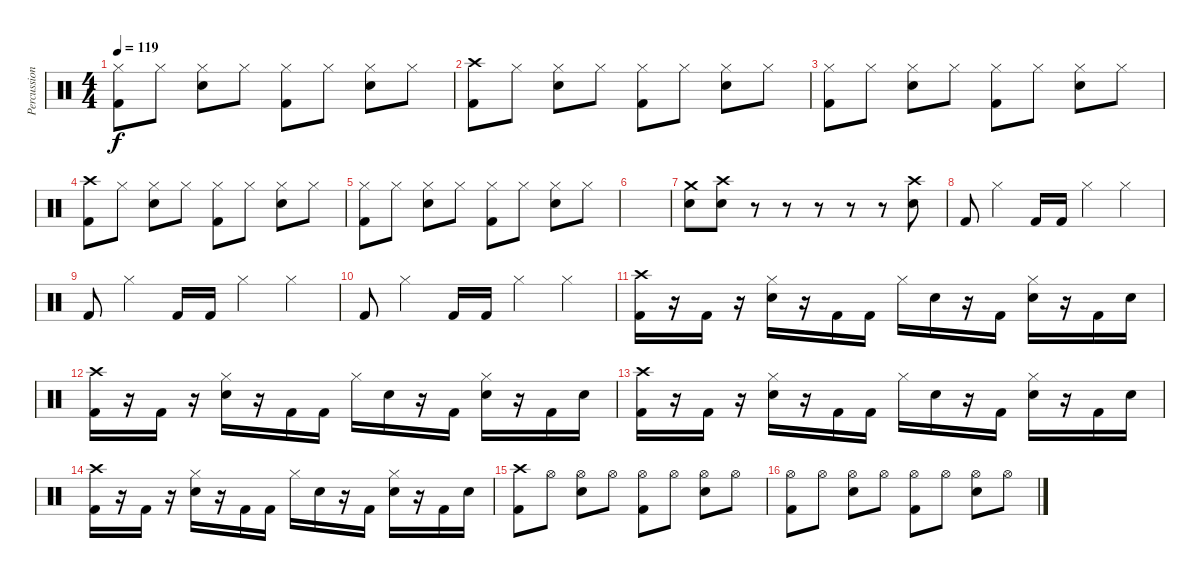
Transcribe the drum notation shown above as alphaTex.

\track ("Percussion" "Percussion") {instrument percussion}
\staff {score}
\articulation defaults
\ts (4 4)
\tempo 119
\clef neutral
\ks c
("Hi-Hat (closed)" "Kick (hit) 2").8{dy f} "Hi-Hat (closed)".8 ("Hi-Hat (closed)" "Electric Snare (hit)").8 "Hi-Hat (closed)".8 ("Hi-Hat (closed)" "Kick (hit) 2").8 "Hi-Hat (closed)".8 ("Hi-Hat (closed)" "Electric Snare (hit)").8 "Hi-Hat (closed)".8 |
("Crash high (hit)" "Kick (hit) 2").8 "Hi-Hat (closed)".8 ("Hi-Hat (closed)" "Electric Snare (hit)").8 "Hi-Hat (closed)".8 ("Hi-Hat (closed)" "Kick (hit) 2").8 "Hi-Hat (closed)".8 ("Hi-Hat (closed)" "Electric Snare (hit)").8 "Hi-Hat (closed)".8 |
("Hi-Hat (closed)" "Kick (hit) 2").8 "Hi-Hat (closed)".8 ("Hi-Hat (closed)" "Electric Snare (hit)").8 "Hi-Hat (closed)".8 ("Hi-Hat (closed)" "Kick (hit) 2").8 "Hi-Hat (closed)".8 ("Hi-Hat (closed)" "Electric Snare (hit)").8 "Hi-Hat (closed)".8 |
("Crash high (hit)" "Kick (hit) 2").8 "Hi-Hat (closed)".8 ("Hi-Hat (closed)" "Electric Snare (hit)").8 "Hi-Hat (closed)".8 ("Hi-Hat (closed)" "Kick (hit) 2").8 "Hi-Hat (closed)".8 ("Hi-Hat (closed)" "Electric Snare (hit)").8 "Hi-Hat (closed)".8 |
("Hi-Hat (closed)" "Kick (hit) 2").8 "Hi-Hat (closed)".8 ("Hi-Hat (closed)" "Electric Snare (hit)").8 "Hi-Hat (closed)".8 ("Hi-Hat (closed)" "Kick (hit) 2").8 "Hi-Hat (closed)".8 ("Hi-Hat (closed)" "Electric Snare (hit)").8 "Hi-Hat (closed)".8 |
|
("Crash medium (hit)" "Electric Snare (hit)").8 ("Crash high (hit)" "Electric Snare (hit)").8 r.8 r.8 r.8 r.8 r.8 ("Snare (hit) 2" "Crash high (hit)").8 |
"Kick (hit) 2".8 "Hi-Hat (closed)".4 "Kick (hit) 2".16 "Kick (hit) 2".16 "Hi-Hat (closed)".4 "Hi-Hat (closed)".4 |
"Kick (hit) 2".8 "Hi-Hat (closed)".4 "Kick (hit) 2".16 "Kick (hit) 2".16 "Hi-Hat (closed)".4 "Hi-Hat (closed)".4 |
"Kick (hit) 2".8 "Hi-Hat (closed)".4 "Kick (hit) 2".16 "Kick (hit) 2".16 "Hi-Hat (closed)".4 "Hi-Hat (closed)".4 |
("Crash high (hit)" "Kick (hit) 2").16 r.16 "Kick (hit) 2".16 r.16 ("Hi-Hat (closed)" "Electric Snare (hit)").16 r.16 "Kick (hit) 2".16 "Kick (hit) 2".16 "Hi-Hat (closed)".16 "Electric Snare (hit)".16 r.16 "Kick (hit) 2".16 ("Hi-Hat (closed)" "Electric Snare (hit)").16 r.16 "Kick (hit) 2".16 "Electric Snare (hit)".16 |
("Crash high (hit)" "Kick (hit) 2").16 r.16 "Kick (hit) 2".16 r.16 ("Hi-Hat (closed)" "Electric Snare (hit)").16 r.16 "Kick (hit) 2".16 "Kick (hit) 2".16 "Hi-Hat (closed)".16 "Electric Snare (hit)".16 r.16 "Kick (hit) 2".16 ("Hi-Hat (closed)" "Electric Snare (hit)").16 r.16 "Kick (hit) 2".16 "Electric Snare (hit)".16 |
("Crash high (hit)" "Kick (hit) 2").16 r.16 "Kick (hit) 2".16 r.16 ("Hi-Hat (closed)" "Electric Snare (hit)").16 r.16 "Kick (hit) 2".16 "Kick (hit) 2".16 "Hi-Hat (closed)".16 "Electric Snare (hit)".16 r.16 "Kick (hit) 2".16 ("Hi-Hat (closed)" "Electric Snare (hit)").16 r.16 "Kick (hit) 2".16 "Electric Snare (hit)".16 |
("Crash high (hit)" "Kick (hit) 2").16 r.16 "Kick (hit) 2".16 r.16 ("Hi-Hat (closed)" "Electric Snare (hit)").16 r.16 "Kick (hit) 2".16 "Kick (hit) 2".16 "Hi-Hat (closed)".16 "Electric Snare (hit)".16 r.16 "Kick (hit) 2".16 ("Hi-Hat (closed)" "Electric Snare (hit)").16 r.16 "Kick (hit) 2".16 "Electric Snare (hit)".16 |
("Crash high (hit)" "Kick (hit) 2").8 "Hi-Hat (open)".8 ("Hi-Hat (open)" "Electric Snare (hit)").8 "Hi-Hat (open)".8 ("Hi-Hat (open)" "Kick (hit) 2").8 "Hi-Hat (open)".8 ("Hi-Hat (open)" "Electric Snare (hit)").8 "Hi-Hat (open)".8 |
("Hi-Hat (open)" "Kick (hit) 2").8 "Hi-Hat (open)".8 ("Hi-Hat (open)" "Electric Snare (hit)").8 "Hi-Hat (open)".8 ("Hi-Hat (open)" "Kick (hit) 2").8 "Hi-Hat (open)".8 ("Hi-Hat (open)" "Electric Snare (hit)").8 "Hi-Hat (open)".8
